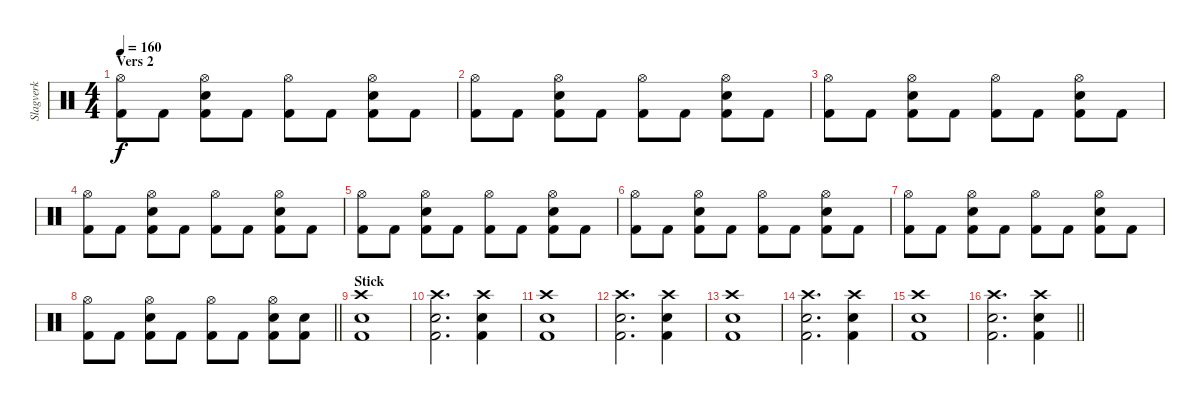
\track ("Slagverk" "Slagverk") {instrument percussion}
\staff {score}
\articulation defaults
\ts (4 4)
\section ("" "Vers 2")
\tempo 160
\clef neutral
\ks c
("Hi-Hat (open)" "Kick (hit) 2").8{dy f} "Kick (hit) 2".8 ("Snare (hit) 2" "Hi-Hat (open)" "Kick (hit) 2").8 "Kick (hit) 2".8 ("Hi-Hat (open)" "Kick (hit) 2").8 "Kick (hit) 2".8 ("Snare (hit) 2" "Hi-Hat (open)" "Kick (hit) 2").8 "Kick (hit) 2".8 |
("Hi-Hat (open)" "Kick (hit) 2").8 "Kick (hit) 2".8 ("Snare (hit) 2" "Hi-Hat (open)" "Kick (hit) 2").8 "Kick (hit) 2".8 ("Hi-Hat (open)" "Kick (hit) 2").8 "Kick (hit) 2".8 ("Snare (hit) 2" "Hi-Hat (open)" "Kick (hit) 2").8 "Kick (hit) 2".8 |
("Hi-Hat (open)" "Kick (hit) 2").8 "Kick (hit) 2".8 ("Snare (hit) 2" "Hi-Hat (open)" "Kick (hit) 2").8 "Kick (hit) 2".8 ("Hi-Hat (open)" "Kick (hit) 2").8 "Kick (hit) 2".8 ("Snare (hit) 2" "Hi-Hat (open)" "Kick (hit) 2").8 "Kick (hit) 2".8 |
("Hi-Hat (open)" "Kick (hit) 2").8 "Kick (hit) 2".8 ("Snare (hit) 2" "Hi-Hat (open)" "Kick (hit) 2").8 "Kick (hit) 2".8 ("Hi-Hat (open)" "Kick (hit) 2").8 "Kick (hit) 2".8 ("Snare (hit) 2" "Hi-Hat (open)" "Kick (hit) 2").8 "Kick (hit) 2".8 |
("Hi-Hat (open)" "Kick (hit) 2").8 "Kick (hit) 2".8 ("Snare (hit) 2" "Hi-Hat (open)" "Kick (hit) 2").8 "Kick (hit) 2".8 ("Hi-Hat (open)" "Kick (hit) 2").8 "Kick (hit) 2".8 ("Snare (hit) 2" "Hi-Hat (open)" "Kick (hit) 2").8 "Kick (hit) 2".8 |
("Hi-Hat (open)" "Kick (hit) 2").8 "Kick (hit) 2".8 ("Snare (hit) 2" "Hi-Hat (open)" "Kick (hit) 2").8 "Kick (hit) 2".8 ("Hi-Hat (open)" "Kick (hit) 2").8 "Kick (hit) 2".8 ("Snare (hit) 2" "Hi-Hat (open)" "Kick (hit) 2").8 "Kick (hit) 2".8 |
("Hi-Hat (open)" "Kick (hit) 2").8 "Kick (hit) 2".8 ("Snare (hit) 2" "Hi-Hat (open)" "Kick (hit) 2").8 "Kick (hit) 2".8 ("Hi-Hat (open)" "Kick (hit) 2").8 "Kick (hit) 2".8 ("Snare (hit) 2" "Hi-Hat (open)" "Kick (hit) 2").8 "Kick (hit) 2".8 |
\barLineRight lightlight
("Hi-Hat (open)" "Kick (hit) 2").8 "Kick (hit) 2".8 ("Snare (hit) 2" "Hi-Hat (open)" "Kick (hit) 2").8 "Kick (hit) 2".8 ("Hi-Hat (open)" "Kick (hit) 2").8 "Kick (hit) 2".8 ("Snare (hit) 2" "Hi-Hat (open)" "Kick (hit) 2").8 ("Snare (hit) 2" "Kick (hit) 2").8 |
\section ("" "Stick")
("Snare (hit) 2" "Crash high (hit)" "Kick (hit) 2").1 |
("Snare (hit) 2" "Crash high (hit)" "Kick (hit) 2").2{d} ("Snare (hit) 2" "Crash high (hit)" "Kick (hit) 2").4 |
("Snare (hit) 2" "Crash high (hit)" "Kick (hit) 2").1 |
("Snare (hit) 2" "Crash high (hit)" "Kick (hit) 2").2{d} ("Snare (hit) 2" "Crash high (hit)" "Kick (hit) 2").4 |
("Snare (hit) 2" "Crash high (hit)" "Kick (hit) 2").1 |
("Snare (hit) 2" "Crash high (hit)" "Kick (hit) 2").2{d} ("Snare (hit) 2" "Crash high (hit)" "Kick (hit) 2").4 |
("Snare (hit) 2" "Crash high (hit)" "Kick (hit) 2").1 |
\barLineRight lightlight
("Snare (hit) 2" "Crash high (hit)" "Kick (hit) 2").2{d} ("Snare (hit) 2" "Crash high (hit)" "Kick (hit) 2").4
